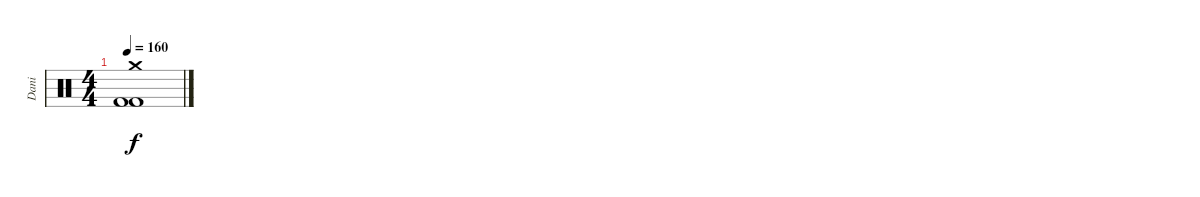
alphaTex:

\track ("Dani" "Dani") {instrument percussion}
\staff {score}
\articulation defaults
\ts (4 4)
\tempo 160
\clef neutral
\ks c
("Crash medium (hit)" "Kick (hit) 2" "Kick (hit) 2").1{dy f}
